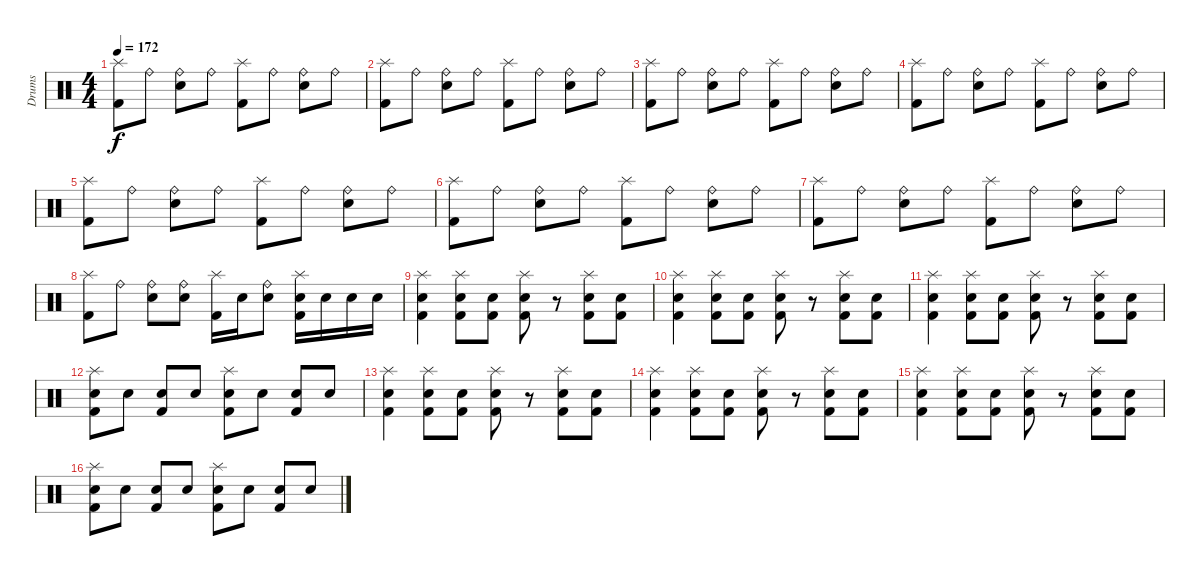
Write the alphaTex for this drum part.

\track ("Drums" "Drums") {instrument percussion}
\staff {score}
\articulation defaults
\ts (4 4)
\tempo 172
\clef neutral
\ks c
("Splash (hit)" "Kick (hit) 2").8{dy f} "Ride (bell)".8 ("Ride (bell)" "Snare (hit) 2").8 "Ride (bell)".8 ("Splash (hit)" "Kick (hit) 2").8 "Ride (bell)".8 ("Ride (bell)" "Snare (hit) 2").8 "Ride (bell)".8 |
("Splash (hit)" "Kick (hit) 2").8 "Ride (bell)".8 ("Ride (bell)" "Snare (hit) 2").8 "Ride (bell)".8 ("Splash (hit)" "Kick (hit) 2").8 "Ride (bell)".8 ("Ride (bell)" "Snare (hit) 2").8 "Ride (bell)".8 |
("Splash (hit)" "Kick (hit) 2").8 "Ride (bell)".8 ("Ride (bell)" "Snare (hit) 2").8 "Ride (bell)".8 ("Splash (hit)" "Kick (hit) 2").8 "Ride (bell)".8 ("Ride (bell)" "Snare (hit) 2").8 "Ride (bell)".8 |
("Splash (hit)" "Kick (hit) 2").8 "Ride (bell)".8 ("Ride (bell)" "Snare (hit) 2").8 "Ride (bell)".8 ("Splash (hit)" "Kick (hit) 2").8 "Ride (bell)".8 ("Ride (bell)" "Snare (hit) 2").8 "Ride (bell)".8 |
("Splash (hit)" "Kick (hit) 2").8 "Ride (bell)".8 ("Ride (bell)" "Snare (hit) 2").8 "Ride (bell)".8 ("Splash (hit)" "Kick (hit) 2").8 "Ride (bell)".8 ("Ride (bell)" "Snare (hit) 2").8 "Ride (bell)".8 |
("Splash (hit)" "Kick (hit) 2").8 "Ride (bell)".8 ("Ride (bell)" "Snare (hit) 2").8 "Ride (bell)".8 ("Splash (hit)" "Kick (hit) 2").8 "Ride (bell)".8 ("Ride (bell)" "Snare (hit) 2").8 "Ride (bell)".8 |
("Splash (hit)" "Kick (hit) 2").8 "Ride (bell)".8 ("Ride (bell)" "Snare (hit) 2").8 "Ride (bell)".8 ("Splash (hit)" "Kick (hit) 2").8 "Ride (bell)".8 ("Ride (bell)" "Snare (hit) 2").8 "Ride (bell)".8 |
("Splash (hit)" "Kick (hit) 2").8 "Ride (bell)".8 ("Ride (bell)" "Snare (hit) 2").8 ("Ride (bell)" "Snare (hit) 2").8 ("Splash (hit)" "Kick (hit) 2").16 "Snare (hit) 2".16 ("Ride (bell)" "Snare (hit) 2").8 ("Splash (hit)" "Snare (hit) 2" "Kick (hit) 2").16 "Snare (hit) 2".16 "Snare (hit) 2".16 "Snare (hit) 2".16 |
("Splash (hit)" "Kick (hit) 2" "Electric Snare (hit)").4 ("Splash (hit)" "Kick (hit) 2" "Electric Snare (hit)").8 ("Kick (hit) 2" "Electric Snare (hit)").8 ("Splash (hit)" "Kick (hit) 2" "Electric Snare (hit)").8 r.8 ("Splash (hit)" "Kick (hit) 2" "Electric Snare (hit)").8 ("Kick (hit) 2" "Electric Snare (hit)").8 |
("Splash (hit)" "Kick (hit) 2" "Electric Snare (hit)").4 ("Splash (hit)" "Kick (hit) 2" "Electric Snare (hit)").8 ("Kick (hit) 2" "Electric Snare (hit)").8 ("Splash (hit)" "Kick (hit) 2" "Electric Snare (hit)").8 r.8 ("Splash (hit)" "Kick (hit) 2" "Electric Snare (hit)").8 ("Kick (hit) 2" "Electric Snare (hit)").8 |
("Splash (hit)" "Kick (hit) 2" "Electric Snare (hit)").4 ("Splash (hit)" "Kick (hit) 2" "Electric Snare (hit)").8 ("Kick (hit) 2" "Electric Snare (hit)").8 ("Splash (hit)" "Kick (hit) 2" "Electric Snare (hit)").8 r.8 ("Splash (hit)" "Kick (hit) 2" "Electric Snare (hit)").8 ("Kick (hit) 2" "Electric Snare (hit)").8 |
("Splash (hit)" "Snare (hit) 2" "Kick (hit) 2").8 "Snare (hit) 2".8 ("Snare (hit) 2" "Kick (hit) 2").8 "Snare (hit) 2".8 ("Splash (hit)" "Snare (hit) 2" "Kick (hit) 2").8 "Snare (hit) 2".8 ("Snare (hit) 2" "Kick (hit) 2").8 "Snare (hit) 2".8 |
("Splash (hit)" "Kick (hit) 2" "Electric Snare (hit)").4 ("Splash (hit)" "Kick (hit) 2" "Electric Snare (hit)").8 ("Kick (hit) 2" "Electric Snare (hit)").8 ("Splash (hit)" "Kick (hit) 2" "Electric Snare (hit)").8 r.8 ("Splash (hit)" "Kick (hit) 2" "Electric Snare (hit)").8 ("Kick (hit) 2" "Electric Snare (hit)").8 |
("Splash (hit)" "Kick (hit) 2" "Electric Snare (hit)").4 ("Splash (hit)" "Kick (hit) 2" "Electric Snare (hit)").8 ("Kick (hit) 2" "Electric Snare (hit)").8 ("Splash (hit)" "Kick (hit) 2" "Electric Snare (hit)").8 r.8 ("Splash (hit)" "Kick (hit) 2" "Electric Snare (hit)").8 ("Kick (hit) 2" "Electric Snare (hit)").8 |
("Splash (hit)" "Kick (hit) 2" "Electric Snare (hit)").4 ("Splash (hit)" "Kick (hit) 2" "Electric Snare (hit)").8 ("Kick (hit) 2" "Electric Snare (hit)").8 ("Splash (hit)" "Kick (hit) 2" "Electric Snare (hit)").8 r.8 ("Splash (hit)" "Kick (hit) 2" "Electric Snare (hit)").8 ("Kick (hit) 2" "Electric Snare (hit)").8 |
("Splash (hit)" "Snare (hit) 2" "Kick (hit) 2").8 "Snare (hit) 2".8 ("Snare (hit) 2" "Kick (hit) 2").8 "Snare (hit) 2".8 ("Splash (hit)" "Snare (hit) 2" "Kick (hit) 2").8 "Snare (hit) 2".8 ("Snare (hit) 2" "Kick (hit) 2").8 "Snare (hit) 2".8
